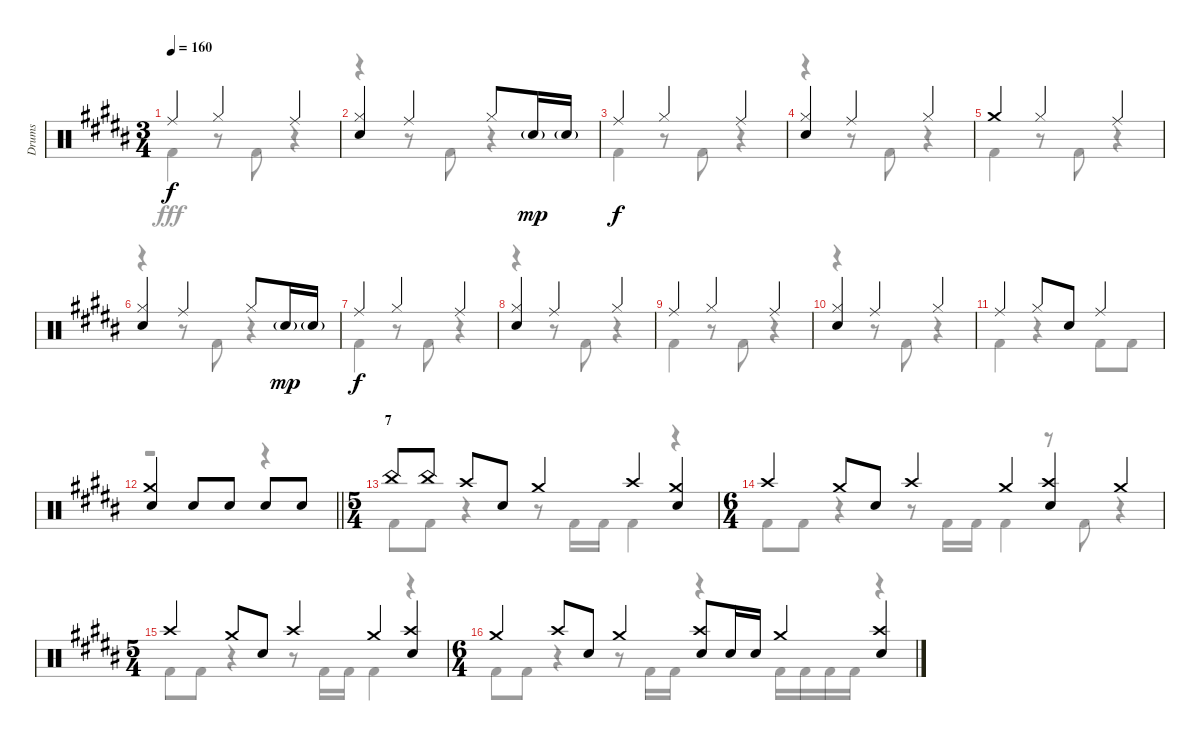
\track ("Drums" "Drums") {instrument percussion}
\staff {score}
\articulation defaults
\voice
\ts (3 4)
\tempo 160
\clef neutral
\ks b "Ride (middle)".4{dy f} "Hi-Hat (closed)".4 "Ride (middle)".4
|
("Hi-Hat (closed)" "Snare (hit) 2").4 "Ride (middle)".4 "Hi-Hat (closed)".8 "Snare (hit) 2"{g}.16{dy mp} "Snare (hit) 2"{g}.16 |
"Ride (middle)".4{dy f} "Hi-Hat (closed)".4 "Ride (middle)".4 |
("Hi-Hat (closed)" "Snare (hit) 2").4 "Ride (middle)".4 "Hi-Hat (closed)".4 |
"Crash medium (hit)".4 "Hi-Hat (closed)".4 "Ride (middle)".4 |
("Hi-Hat (closed)" "Snare (hit) 2").4 "Ride (middle)".4 "Hi-Hat (closed)".8 "Snare (hit) 2"{g}.16{dy mp} "Snare (hit) 2"{g}.16 |
"Ride (middle)".4{dy f} "Hi-Hat (closed)".4 "Ride (middle)".4 |
("Hi-Hat (closed)" "Snare (hit) 2").4 "Ride (middle)".4 "Hi-Hat (closed)".4 |
"Ride (middle)".4 "Hi-Hat (closed)".4 "Ride (middle)".4 |
("Hi-Hat (closed)" "Snare (hit) 2").4 "Ride (middle)".4 "Hi-Hat (closed)".4 |
"Ride (middle)".4 "Hi-Hat (closed)".8 "Snare (hit) 2".8 "Ride (middle)".4 |
\barLineRight lightlight
("Crash medium (hit)" "Snare (hit) 2").4 "Snare (hit) 2".8 "Snare (hit) 2".8 "Snare (hit) 2".8 "Snare (hit) 2".8 |
\ts (5 4)
\section ("" "7")
"China (hit)".8 "China (hit)".8 "Crash high (hit)".8 "Snare (hit) 2".8 "Crash medium (hit)".4 "Crash high (hit)".4 ("Crash medium (hit)" "Snare (hit) 2").4 |
\ts (6 4)
"Crash high (hit)".4 "Crash medium (hit)".8 "Snare (hit) 2".8 "Crash high (hit)".4 "Crash medium (hit)".4 ("Crash high (hit)" "Snare (hit) 2").4 "Crash medium (hit)".4 |
\ts (5 4)
"Crash high (hit)".4 "Crash medium (hit)".8 "Snare (hit) 2".8 "Crash high (hit)".4 "Crash medium (hit)".4 ("Crash high (hit)" "Snare (hit) 2").4 |
\ts (6 4)
"Crash medium (hit)".4 "Crash high (hit)".8 "Snare (hit) 2".8 "Crash medium (hit)".4 ("Crash high (hit)" "Snare (hit) 2").8 "Snare (hit) 2".16 "Snare (hit) 2".16 "Crash medium (hit)".4 ("Crash high (hit)" "Snare (hit) 2").4
\voice
\clef neutral
\ottava regular
\simile none
\ks b "Kick (hit) 2".4{dy fff}
r.8 "Kick (hit) 2".8 r.4 |
r.4 r.8 "Kick (hit) 2".8 r.4 |
"Kick (hit) 2".4 r.8 "Kick (hit) 2".8 r.4 |
r.4 r.8 "Kick (hit) 2".8 r.4 |
"Kick (hit) 2".4 r.8 "Kick (hit) 2".8 r.4 |
r.4 r.8 "Kick (hit) 2".8 r.4 |
"Kick (hit) 2".4 r.8 "Kick (hit) 2".8 r.4 |
r.4 r.8 "Kick (hit) 2".8 r.4 |
"Kick (hit) 2".4 r.8 "Kick (hit) 2".8 r.4 |
r.4 r.8 "Kick (hit) 2".8 r.4 |
"Kick (hit) 2".4 r.4 "Kick (hit) 2".8 "Kick (hit) 2".8 |
\barLineRight lightlight
r.2 r.4 |
"Kick (hit) 2".8 "Kick (hit) 2".8 r.4 r.8 "Kick (hit) 2".16 "Kick (hit) 2".16 "Kick (hit) 2".4 r.4 |
"Kick (hit) 2".8 "Kick (hit) 2".8 r.4 r.8 "Kick (hit) 2".16 "Kick (hit) 2".16 "Kick (hit) 2".4 r.8 "Kick (hit) 2".8 r.4 |
"Kick (hit) 2".8 "Kick (hit) 2".8 r.4 r.8 "Kick (hit) 2".16 "Kick (hit) 2".16 "Kick (hit) 2".4 r.4 |
"Kick (hit) 2".8 "Kick (hit) 2".8 r.4 r.8 "Kick (hit) 2".16 "Kick (hit) 2".16 r.4 "Kick (hit) 2".16 "Kick (hit) 2".16 "Kick (hit) 2".16 "Kick (hit) 2".16 r.4
